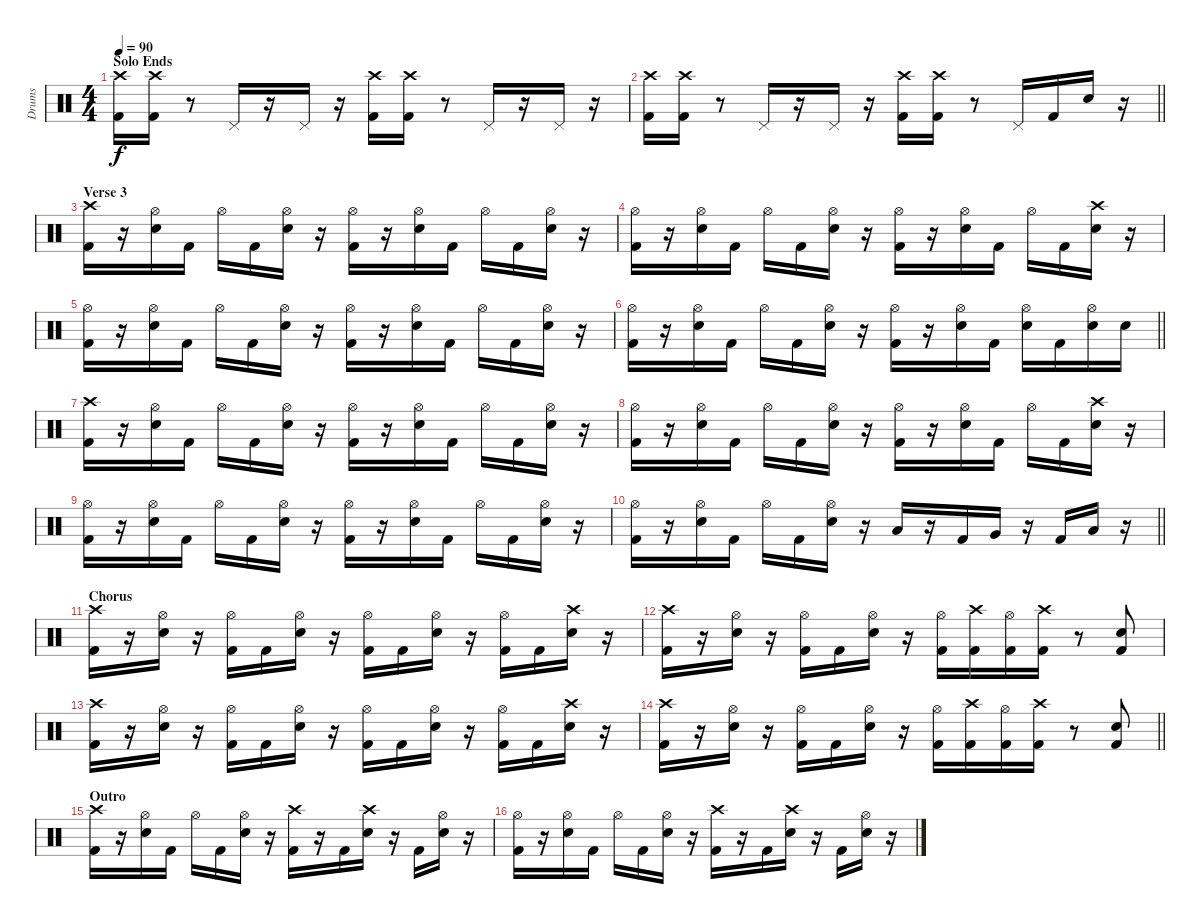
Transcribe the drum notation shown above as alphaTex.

\track ("Drums" "Drums") {instrument percussion}
\staff {score}
\articulation defaults
\ts (4 4)
\section ("" "Solo Ends")
\tempo 90
\clef neutral
\ks c
("Crash high (hit)" "Kick (hit) 2").16{dy f} ("Crash high (hit)" "Kick (hit) 2").16 r.8 "Pedal Hi-Hat (hit)".16 r.16 "Pedal Hi-Hat (hit)".16 r.16 ("Crash high (hit)" "Kick (hit) 2").16 ("Crash high (hit)" "Kick (hit) 2").16 r.8 "Pedal Hi-Hat (hit)".16 r.16 "Pedal Hi-Hat (hit)".16 r.16 |
\barLineRight lightlight
("Crash high (hit)" "Kick (hit) 2").16 ("Crash high (hit)" "Kick (hit) 2").16 r.8 "Pedal Hi-Hat (hit)".16 r.16 "Pedal Hi-Hat (hit)".16 r.16 ("Crash high (hit)" "Kick (hit) 2").16 ("Crash high (hit)" "Kick (hit) 2").16 r.8 "Pedal Hi-Hat (hit)".16 "Kick (hit) 2".16 "Snare (hit) 2".16 r.16 |
\section ("" "Verse 3")
("Crash high (hit)" "Kick (hit) 2").16 r.16 ("Hi-Hat (open)" "Snare (hit) 2").16 "Kick (hit) 2".16 "Hi-Hat (open)".16 "Kick (hit) 2".16 ("Hi-Hat (open)" "Snare (hit) 2").16 r.16 ("Hi-Hat (open)" "Kick (hit) 2").16 r.16 ("Hi-Hat (open)" "Snare (hit) 2").16 "Kick (hit) 2".16 "Hi-Hat (open)".16 "Kick (hit) 2".16 ("Hi-Hat (open)" "Snare (hit) 2").16 r.16 |
("Hi-Hat (open)" "Kick (hit) 2").16 r.16 ("Hi-Hat (open)" "Snare (hit) 2").16 "Kick (hit) 2".16 "Hi-Hat (open)".16 "Kick (hit) 2".16 ("Hi-Hat (open)" "Snare (hit) 2").16 r.16 ("Hi-Hat (open)" "Kick (hit) 2").16 r.16 ("Hi-Hat (open)" "Snare (hit) 2").16 "Kick (hit) 2".16 "Hi-Hat (open)".16 "Kick (hit) 2".16 ("Crash high (hit)" "Snare (hit) 2").16 r.16 |
("Hi-Hat (open)" "Kick (hit) 2").16 r.16 ("Hi-Hat (open)" "Snare (hit) 2").16 "Kick (hit) 2".16 "Hi-Hat (open)".16 "Kick (hit) 2".16 ("Hi-Hat (open)" "Snare (hit) 2").16 r.16 ("Hi-Hat (open)" "Kick (hit) 2").16 r.16 ("Hi-Hat (open)" "Snare (hit) 2").16 "Kick (hit) 2".16 "Hi-Hat (open)".16 "Kick (hit) 2".16 ("Hi-Hat (open)" "Snare (hit) 2").16 r.16 |
\barLineRight lightlight
("Hi-Hat (open)" "Kick (hit) 2").16 r.16 ("Hi-Hat (open)" "Snare (hit) 2").16 "Kick (hit) 2".16 "Hi-Hat (open)".16 "Kick (hit) 2".16 ("Hi-Hat (open)" "Snare (hit) 2").16 r.16 ("Hi-Hat (open)" "Kick (hit) 2").16 r.16 ("Hi-Hat (open)" "Snare (hit) 2").16 "Kick (hit) 2".16 ("Hi-Hat (open)" "Snare (hit) 2").16 "Kick (hit) 2".16 ("Hi-Hat (open)" "Snare (hit) 2").16 "Snare (hit) 2".16 |
("Crash high (hit)" "Kick (hit) 2").16 r.16 ("Hi-Hat (open)" "Snare (hit) 2").16 "Kick (hit) 2".16 "Hi-Hat (open)".16 "Kick (hit) 2".16 ("Hi-Hat (open)" "Snare (hit) 2").16 r.16 ("Hi-Hat (open)" "Kick (hit) 2").16 r.16 ("Hi-Hat (open)" "Snare (hit) 2").16 "Kick (hit) 2".16 "Hi-Hat (open)".16 "Kick (hit) 2".16 ("Hi-Hat (open)" "Snare (hit) 2").16 r.16 |
("Hi-Hat (open)" "Kick (hit) 2").16 r.16 ("Hi-Hat (open)" "Snare (hit) 2").16 "Kick (hit) 2".16 "Hi-Hat (open)".16 "Kick (hit) 2".16 ("Hi-Hat (open)" "Snare (hit) 2").16 r.16 ("Hi-Hat (open)" "Kick (hit) 2").16 r.16 ("Hi-Hat (open)" "Snare (hit) 2").16 "Kick (hit) 2".16 "Hi-Hat (open)".16 "Kick (hit) 2".16 ("Crash high (hit)" "Snare (hit) 2").16 r.16 |
("Hi-Hat (open)" "Kick (hit) 2").16 r.16 ("Hi-Hat (open)" "Snare (hit) 2").16 "Kick (hit) 2".16 "Hi-Hat (open)".16 "Kick (hit) 2".16 ("Hi-Hat (open)" "Snare (hit) 2").16 r.16 ("Hi-Hat (open)" "Kick (hit) 2").16 r.16 ("Hi-Hat (open)" "Snare (hit) 2").16 "Kick (hit) 2".16 "Hi-Hat (open)".16 "Kick (hit) 2".16 ("Hi-Hat (open)" "Snare (hit) 2").16 r.16 |
\barLineRight lightlight
("Hi-Hat (open)" "Kick (hit) 2").16 r.16 ("Hi-Hat (open)" "Snare (hit) 2").16 "Kick (hit) 2".16 "Hi-Hat (open)".16 "Kick (hit) 2".16 ("Hi-Hat (open)" "Snare (hit) 2").16 r.16 "Low Tom (hit)".16 r.16 "Kick (hit) 2".16 "Very Low Tom (hit)".16 r.16 "Kick (hit) 2".16 "Low Floor Tom (hit)".16 r.16 |
\section ("" "Chorus")
("Crash high (hit)" "Kick (hit) 2").16 r.16 ("Hi-Hat (open)" "Snare (hit) 2").16 r.16 ("Hi-Hat (open)" "Kick (hit) 2").16 "Kick (hit) 2".16 ("Hi-Hat (open)" "Snare (hit) 2").16 r.16 ("Hi-Hat (open)" "Kick (hit) 2").16 "Kick (hit) 2".16 ("Hi-Hat (open)" "Snare (hit) 2").16 r.16 ("Hi-Hat (open)" "Kick (hit) 2").16 "Kick (hit) 2".16 ("Crash high (hit)" "Snare (hit) 2").16 r.16 |
("Crash high (hit)" "Kick (hit) 2").16 r.16 ("Hi-Hat (open)" "Snare (hit) 2").16 r.16 ("Hi-Hat (open)" "Kick (hit) 2").16 "Kick (hit) 2".16 ("Hi-Hat (open)" "Snare (hit) 2").16 r.16 ("Hi-Hat (open)" "Kick (hit) 2").16 ("Crash high (hit)" "Kick (hit) 2").16 ("Hi-Hat (open)" "Kick (hit) 2").16 ("Crash high (hit)" "Kick (hit) 2").16 r.8 ("Snare (hit) 2" "Kick (hit) 2").8 |
("Crash high (hit)" "Kick (hit) 2").16 r.16 ("Hi-Hat (open)" "Snare (hit) 2").16 r.16 ("Hi-Hat (open)" "Kick (hit) 2").16 "Kick (hit) 2".16 ("Hi-Hat (open)" "Snare (hit) 2").16 r.16 ("Hi-Hat (open)" "Kick (hit) 2").16 "Kick (hit) 2".16 ("Hi-Hat (open)" "Snare (hit) 2").16 r.16 ("Hi-Hat (open)" "Kick (hit) 2").16 "Kick (hit) 2".16 ("Crash high (hit)" "Snare (hit) 2").16 r.16 |
\barLineRight lightlight
("Crash high (hit)" "Kick (hit) 2").16 r.16 ("Hi-Hat (open)" "Snare (hit) 2").16 r.16 ("Hi-Hat (open)" "Kick (hit) 2").16 "Kick (hit) 2".16 ("Hi-Hat (open)" "Snare (hit) 2").16 r.16 ("Hi-Hat (open)" "Kick (hit) 2").16 ("Crash high (hit)" "Kick (hit) 2").16 ("Hi-Hat (open)" "Kick (hit) 2").16 ("Crash high (hit)" "Kick (hit) 2").16 r.8 ("Snare (hit) 2" "Kick (hit) 2").8 |
\section ("" "Outro")
("Crash high (hit)" "Kick (hit) 2").16 r.16 ("Hi-Hat (open)" "Snare (hit) 2").16 "Kick (hit) 2".16 "Hi-Hat (open)".16 "Kick (hit) 2".16 ("Hi-Hat (open)" "Snare (hit) 2").16 r.16 ("Crash high (hit)" "Kick (hit) 2").16 r.16 "Kick (hit) 2".16 ("Crash high (hit)" "Snare (hit) 2").16 r.16 "Kick (hit) 2".16 ("Hi-Hat (open)" "Snare (hit) 2").16 r.16 |
("Hi-Hat (open)" "Kick (hit) 2").16 r.16 ("Hi-Hat (open)" "Snare (hit) 2").16 "Kick (hit) 2".16 "Hi-Hat (open)".16 "Kick (hit) 2".16 ("Hi-Hat (open)" "Snare (hit) 2").16 r.16 ("Crash high (hit)" "Kick (hit) 2").16 r.16 "Kick (hit) 2".16 ("Crash high (hit)" "Snare (hit) 2").16 r.16 "Kick (hit) 2".16 ("Hi-Hat (open)" "Snare (hit) 2").16 r.16
